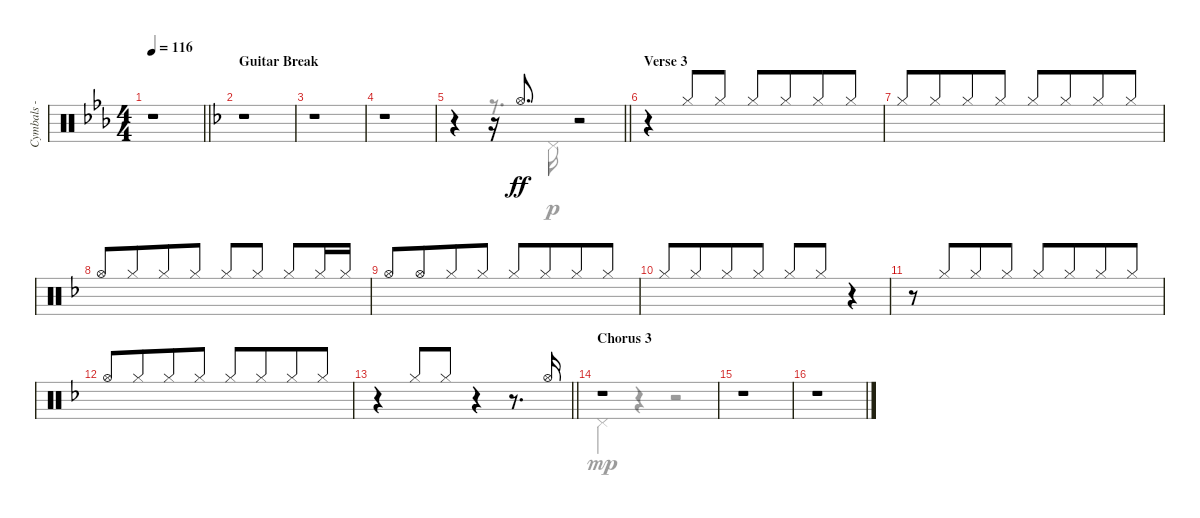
\track ("Cymbals - hi-hat" "Cymbals - ") {instrument percussion}
\staff {score}
\articulation defaults
\voice
\ts (4 4)
\tempo 116
\clef neutral
\barLineRight lightlight
\ks eb
r.1{dy ff} |
\section ("" "Guitar Break")
\ks f
r.1 |
r.1 |
r.1 |
\barLineRight lightlight
r.4 r.16 "Hi-Hat (open)".8{d} r.2 |
\section ("" "Verse 3")
r.4 "Hi-Hat (closed)".8{beam Up} "Hi-Hat (closed)".8{beam Up} "Hi-Hat (closed)".8{beam Up} "Hi-Hat (closed)".8{beam Up beam merge} "Hi-Hat (closed)".8{beam Up} "Hi-Hat (closed)".8{beam Up} |
"Hi-Hat (closed)".8{beam Up} "Hi-Hat (closed)".8{beam Up beam merge} "Hi-Hat (closed)".8{beam Up} "Hi-Hat (closed)".8{beam Up} "Hi-Hat (closed)".8{beam Up} "Hi-Hat (closed)".8{beam Up beam merge} "Hi-Hat (closed)".8{beam Up} "Hi-Hat (closed)".8{beam Up} |
"Hi-Hat (open)".8{beam Up} "Hi-Hat (closed)".8{beam Up beam merge} "Hi-Hat (closed)".8{beam Up} "Hi-Hat (closed)".8{beam Up} "Hi-Hat (closed)".8{beam Up} "Hi-Hat (closed)".8{beam Up beam split} "Hi-Hat (closed)".8{beam Up} "Hi-Hat (closed)".16{beam Up} "Hi-Hat (closed)".16{beam Up} |
"Hi-Hat (open)".8{beam Up beam merge} "Hi-Hat (open)".8{beam Up beam merge} "Hi-Hat (closed)".8{beam Up} "Hi-Hat (closed)".8{beam Up} "Hi-Hat (closed)".8{beam Up} "Hi-Hat (closed)".8{beam Up beam merge} "Hi-Hat (closed)".8{beam Up} "Hi-Hat (closed)".8{beam Up} |
"Hi-Hat (closed)".8{beam Up} "Hi-Hat (closed)".8{beam Up beam merge} "Hi-Hat (closed)".8{beam Up} "Hi-Hat (closed)".8{beam Up} "Hi-Hat (closed)".8{beam Up} "Hi-Hat (closed)".8{beam Up} r.4 |
r.8 "Hi-Hat (closed)".8{beam Up beam merge} "Hi-Hat (closed)".8{beam Up} "Hi-Hat (closed)".8{beam Up} "Hi-Hat (closed)".8{beam Up} "Hi-Hat (closed)".8{beam Up beam merge} "Hi-Hat (closed)".8{beam Up} "Hi-Hat (closed)".8{beam Up} |
"Hi-Hat (open)".8{beam Up} "Hi-Hat (closed)".8{beam Up beam merge} "Hi-Hat (closed)".8{beam Up} "Hi-Hat (closed)".8{beam Up} "Hi-Hat (closed)".8{beam Up} "Hi-Hat (closed)".8{beam Up beam merge} "Hi-Hat (closed)".8{beam Up} "Hi-Hat (closed)".8{beam Up} |
\barLineRight lightlight
r.4{beam Up beam merge} "Hi-Hat (closed)".8{beam Up} "Hi-Hat (closed)".8{beam Up} r.4 r.8{d} "Hi-Hat (open)".16{beam Up} |
\section ("" "Chorus 3")
r.1 |
r.1 |
r.1
\voice
\clef neutral
\ottava regular
\simile none
\barLineRight lightlight
\ks eb
|
\ks f
|
|
|
\barLineRight lightlight
r.4 r.8{d} "Pedal Hi-Hat (hit)".16{dy p} r.2 |
|
|
|
|
|
|
|
\barLineRight lightlight
|
"Pedal Hi-Hat (hit)".4{dy mp} r.4 r.2 |
|
